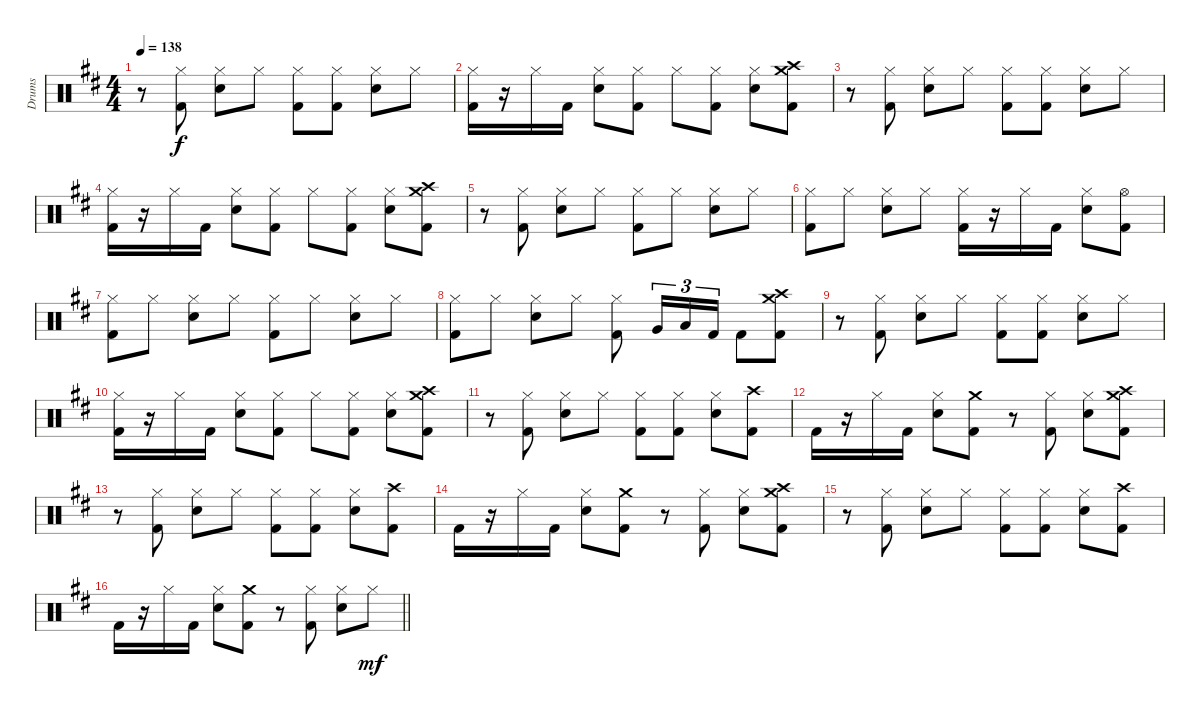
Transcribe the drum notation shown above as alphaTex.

\track ("Drums" "Drums") {instrument percussion}
\staff {score}
\articulation defaults
\ts (4 4)
\tempo 138
\clef neutral
\ks d
r.8{dy f} ("Hi-Hat (closed)" "Kick (hit) 2").8 ("Hi-Hat (closed)" "Electric Snare (hit)").8 "Hi-Hat (closed)".8 ("Hi-Hat (closed)" "Kick (hit) 2").8 ("Hi-Hat (closed)" "Kick (hit) 2").8 ("Hi-Hat (closed)" "Electric Snare (hit)").8 "Hi-Hat (closed)".8 |
("Hi-Hat (closed)" "Kick (hit) 2").16 r.16 "Hi-Hat (closed)".16 "Kick (hit) 2".16 ("Hi-Hat (closed)" "Electric Snare (hit)").8 ("Hi-Hat (closed)" "Kick (hit) 2").8 "Hi-Hat (closed)".8 ("Hi-Hat (closed)" "Kick (hit) 2").8 ("Hi-Hat (closed)" "Electric Snare (hit)").8 ("Crash medium (hit)" "Crash high (hit)" "Kick (hit) 2").8 |
r.8 ("Hi-Hat (closed)" "Kick (hit) 2").8 ("Hi-Hat (closed)" "Electric Snare (hit)").8 "Hi-Hat (closed)".8 ("Hi-Hat (closed)" "Kick (hit) 2").8 ("Hi-Hat (closed)" "Kick (hit) 2").8 ("Hi-Hat (closed)" "Electric Snare (hit)").8 "Hi-Hat (closed)".8 |
("Hi-Hat (closed)" "Kick (hit) 2").16 r.16 "Hi-Hat (closed)".16 "Kick (hit) 2".16 ("Hi-Hat (closed)" "Electric Snare (hit)").8 ("Hi-Hat (closed)" "Kick (hit) 2").8 "Hi-Hat (closed)".8 ("Hi-Hat (closed)" "Kick (hit) 2").8 ("Hi-Hat (closed)" "Electric Snare (hit)").8 ("Crash medium (hit)" "Crash high (hit)" "Kick (hit) 2").8 |
r.8 ("Hi-Hat (closed)" "Kick (hit) 2").8 ("Hi-Hat (closed)" "Electric Snare (hit)").8 "Hi-Hat (closed)".8 ("Hi-Hat (closed)" "Kick (hit) 2").8 "Hi-Hat (closed)".8 ("Hi-Hat (closed)" "Electric Snare (hit)").8 "Hi-Hat (closed)".8 |
("Hi-Hat (closed)" "Kick (hit) 2").8 "Hi-Hat (closed)".8 ("Hi-Hat (closed)" "Electric Snare (hit)").8 "Hi-Hat (closed)".8 ("Hi-Hat (closed)" "Kick (hit) 2").16 r.16 "Hi-Hat (closed)".16 "Kick (hit) 2".16 ("Hi-Hat (closed)" "Electric Snare (hit)").8 ("Hi-Hat (open)" "Kick (hit) 2").8 |
("Hi-Hat (closed)" "Kick (hit) 2").8 "Hi-Hat (closed)".8 ("Hi-Hat (closed)" "Electric Snare (hit)").8 "Hi-Hat (closed)".8 ("Hi-Hat (closed)" "Kick (hit) 2").8 "Hi-Hat (closed)".8 ("Hi-Hat (closed)" "Electric Snare (hit)").8 "Hi-Hat (closed)".8 |
("Hi-Hat (closed)" "Kick (hit) 2").8 "Hi-Hat (closed)".8 ("Hi-Hat (closed)" "Electric Snare (hit)").8 "Hi-Hat (closed)".8 ("Hi-Hat (closed)" "Kick (hit) 2").8 "Very Low Tom (hit)".16{tu (3 2)} "Low Floor Tom (hit)".16{tu (3 2)} "Kick (hit) 2".16{tu (3 2)} "Kick (hit) 2".8 ("Crash medium (hit)" "Crash high (hit)" "Kick (hit) 2").8 |
r.8 ("Hi-Hat (closed)" "Kick (hit) 2").8 ("Hi-Hat (closed)" "Electric Snare (hit)").8 "Hi-Hat (closed)".8 ("Hi-Hat (closed)" "Kick (hit) 2").8 ("Hi-Hat (closed)" "Kick (hit) 2").8 ("Hi-Hat (closed)" "Electric Snare (hit)").8 "Hi-Hat (closed)".8 |
("Hi-Hat (closed)" "Kick (hit) 2").16 r.16 "Hi-Hat (closed)".16 "Kick (hit) 2".16 ("Hi-Hat (closed)" "Electric Snare (hit)").8 ("Hi-Hat (closed)" "Kick (hit) 2").8 "Hi-Hat (closed)".8 ("Hi-Hat (closed)" "Kick (hit) 2").8 ("Hi-Hat (closed)" "Electric Snare (hit)").8 ("Crash medium (hit)" "Crash high (hit)" "Kick (hit) 2").8 |
r.8 ("Hi-Hat (closed)" "Kick (hit) 2").8 ("Hi-Hat (closed)" "Electric Snare (hit)").8 "Hi-Hat (closed)".8 ("Hi-Hat (closed)" "Kick (hit) 2").8 ("Hi-Hat (closed)" "Kick (hit) 2").8 ("Hi-Hat (closed)" "Electric Snare (hit)").8 ("Crash high (hit)" "Kick (hit) 2").8 |
"Kick (hit) 2".16 r.16 "Hi-Hat (closed)".16 "Kick (hit) 2".16 ("Hi-Hat (closed)" "Electric Snare (hit)").8 ("Crash medium (hit)" "Kick (hit) 2").8 r.8 ("Hi-Hat (closed)" "Kick (hit) 2").8 ("Hi-Hat (closed)" "Electric Snare (hit)").8 ("Crash medium (hit)" "Crash high (hit)" "Kick (hit) 2").8 |
r.8 ("Hi-Hat (closed)" "Kick (hit) 2").8 ("Hi-Hat (closed)" "Electric Snare (hit)").8 "Hi-Hat (closed)".8 ("Hi-Hat (closed)" "Kick (hit) 2").8 ("Hi-Hat (closed)" "Kick (hit) 2").8 ("Hi-Hat (closed)" "Electric Snare (hit)").8 ("Crash high (hit)" "Kick (hit) 2").8 |
"Kick (hit) 2".16 r.16 "Hi-Hat (closed)".16 "Kick (hit) 2".16 ("Hi-Hat (closed)" "Electric Snare (hit)").8 ("Crash medium (hit)" "Kick (hit) 2").8 r.8 ("Hi-Hat (closed)" "Kick (hit) 2").8 ("Hi-Hat (closed)" "Electric Snare (hit)").8 ("Crash medium (hit)" "Crash high (hit)" "Kick (hit) 2").8 |
r.8 ("Hi-Hat (closed)" "Kick (hit) 2").8 ("Hi-Hat (closed)" "Electric Snare (hit)").8 "Hi-Hat (closed)".8 ("Hi-Hat (closed)" "Kick (hit) 2").8 ("Hi-Hat (closed)" "Kick (hit) 2").8 ("Hi-Hat (closed)" "Electric Snare (hit)").8 ("Crash high (hit)" "Kick (hit) 2").8 |
\barLineRight lightlight "Kick (hit) 2".16
r.16 "Hi-Hat (closed)".16 "Kick (hit) 2".16 ("Hi-Hat (closed)" "Electric Snare (hit)").8 ("Crash medium (hit)" "Kick (hit) 2").8 r.8 ("Hi-Hat (closed)" "Kick (hit) 2").8 ("Hi-Hat (closed)" "Electric Snare (hit)").8 "Hi-Hat (closed)".8{dy mf}
